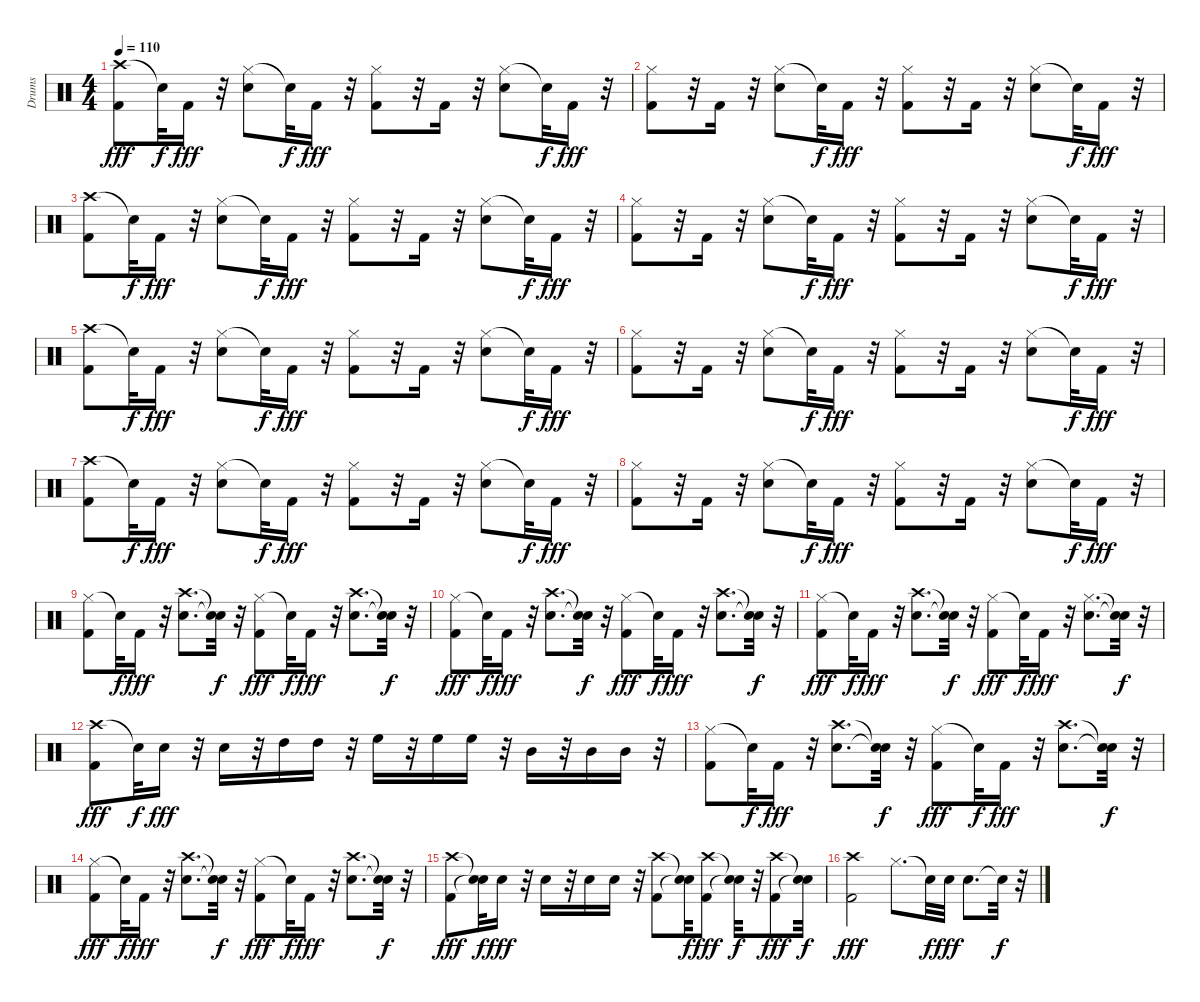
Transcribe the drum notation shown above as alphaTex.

\track ("Drums" "Drums") {instrument percussion}
\staff {score}
\articulation defaults
\ts (4 4)
\tempo 110
\clef neutral
\ks c
("Crash high (hit)" "Kick (hit) 2").8{dy fff} "Snare (hit)"{t}.32{dy f} "Kick (hit) 2".16{dy fff} r.32 ("Hi-Hat (closed)" "Snare (hit) 2").8 "Snare (hit)"{t}.32{dy f} "Kick (hit) 2".16{dy fff} r.32 ("Kick (hit) 2" "Hi-Hat (closed)").8 r.32 "Kick (hit) 2".16 r.32 ("Hi-Hat (closed)" "Snare (hit) 2").8 "Snare (hit)"{t}.32{dy f} "Kick (hit) 2".16{dy fff} r.32 |
("Kick (hit) 2" "Hi-Hat (closed)").8 r.32 "Kick (hit) 2".16 r.32 ("Hi-Hat (closed)" "Snare (hit) 2").8 "Snare (hit)"{t}.32{dy f} "Kick (hit) 2".16{dy fff} r.32 ("Kick (hit) 2" "Hi-Hat (closed)").8 r.32 "Kick (hit) 2".16 r.32 ("Hi-Hat (closed)" "Snare (hit) 2").8 "Snare (hit)"{t}.32{dy f} "Kick (hit) 2".16{dy fff} r.32 |
("Crash high (hit)" "Kick (hit) 2").8 "Snare (hit)"{t}.32{dy f} "Kick (hit) 2".16{dy fff} r.32 ("Hi-Hat (closed)" "Snare (hit) 2").8 "Snare (hit)"{t}.32{dy f} "Kick (hit) 2".16{dy fff} r.32 ("Kick (hit) 2" "Hi-Hat (closed)").8 r.32 "Kick (hit) 2".16 r.32 ("Hi-Hat (closed)" "Snare (hit) 2").8 "Snare (hit)"{t}.32{dy f} "Kick (hit) 2".16{dy fff} r.32 |
("Kick (hit) 2" "Hi-Hat (closed)").8 r.32 "Kick (hit) 2".16 r.32 ("Hi-Hat (closed)" "Snare (hit) 2").8 "Snare (hit)"{t}.32{dy f} "Kick (hit) 2".16{dy fff} r.32 ("Kick (hit) 2" "Hi-Hat (closed)").8 r.32 "Kick (hit) 2".16 r.32 ("Hi-Hat (closed)" "Snare (hit) 2").8 "Snare (hit)"{t}.32{dy f} "Kick (hit) 2".16{dy fff} r.32 |
("Crash high (hit)" "Kick (hit) 2").8 "Snare (hit)"{t}.32{dy f} "Kick (hit) 2".16{dy fff} r.32 ("Hi-Hat (closed)" "Snare (hit) 2").8 "Snare (hit)"{t}.32{dy f} "Kick (hit) 2".16{dy fff} r.32 ("Kick (hit) 2" "Hi-Hat (closed)").8 r.32 "Kick (hit) 2".16 r.32 ("Hi-Hat (closed)" "Snare (hit) 2").8 "Snare (hit)"{t}.32{dy f} "Kick (hit) 2".16{dy fff} r.32 |
("Kick (hit) 2" "Hi-Hat (closed)").8 r.32 "Kick (hit) 2".16 r.32 ("Hi-Hat (closed)" "Snare (hit) 2").8 "Snare (hit)"{t}.32{dy f} "Kick (hit) 2".16{dy fff} r.32 ("Kick (hit) 2" "Hi-Hat (closed)").8 r.32 "Kick (hit) 2".16 r.32 ("Hi-Hat (closed)" "Snare (hit) 2").8 "Snare (hit)"{t}.32{dy f} "Kick (hit) 2".16{dy fff} r.32 |
("Crash high (hit)" "Kick (hit) 2").8 "Snare (hit)"{t}.32{dy f} "Kick (hit) 2".16{dy fff} r.32 ("Hi-Hat (closed)" "Snare (hit) 2").8 "Snare (hit)"{t}.32{dy f} "Kick (hit) 2".16{dy fff} r.32 ("Kick (hit) 2" "Hi-Hat (closed)").8 r.32 "Kick (hit) 2".16 r.32 ("Hi-Hat (closed)" "Snare (hit) 2").8 "Snare (hit)"{t}.32{dy f} "Kick (hit) 2".16{dy fff} r.32 |
("Kick (hit) 2" "Hi-Hat (closed)").8 r.32 "Kick (hit) 2".16 r.32 ("Hi-Hat (closed)" "Snare (hit) 2").8 "Snare (hit)"{t}.32{dy f} "Kick (hit) 2".16{dy fff} r.32 ("Kick (hit) 2" "Hi-Hat (closed)").8 r.32 "Kick (hit) 2".16 r.32 ("Hi-Hat (closed)" "Snare (hit) 2").8 "Snare (hit)"{t}.32{dy f} "Kick (hit) 2".16{dy fff} r.32 |
("Hi-Hat (closed)" "Kick (hit) 2").8 "Snare (hit)"{t}.32{dy f} "Kick (hit) 2".16{dy fff} r.32 ("Crash high (hit)" "Snare (hit) 2").8{d} ("Snare (hit)"{t} "Snare (hit)"{t}).32{dy f} r.32 ("Hi-Hat (closed)" "Kick (hit) 2").8{dy fff} "Snare (hit)"{t}.32{dy f} "Kick (hit) 2".16{dy fff} r.32 ("Crash high (hit)" "Snare (hit) 2").8{d} ("Snare (hit)"{t} "Snare (hit)"{t}).32{dy f} r.32 |
("Hi-Hat (closed)" "Kick (hit) 2").8{dy fff} "Snare (hit)"{t}.32{dy f} "Kick (hit) 2".16{dy fff} r.32 ("Crash high (hit)" "Snare (hit) 2").8{d} ("Snare (hit)"{t} "Snare (hit)"{t}).32{dy f} r.32 ("Hi-Hat (closed)" "Kick (hit) 2").8{dy fff} "Snare (hit)"{t}.32{dy f} "Kick (hit) 2".16{dy fff} r.32 ("Crash high (hit)" "Snare (hit) 2").8{d} ("Snare (hit)"{t} "Snare (hit)"{t}).32{dy f} r.32 |
("Hi-Hat (closed)" "Kick (hit) 2").8{dy fff} "Snare (hit)"{t}.32{dy f} "Kick (hit) 2".16{dy fff} r.32 ("Crash high (hit)" "Snare (hit) 2").8{d} ("Snare (hit)"{t} "Snare (hit)"{t}).32{dy f} r.32 ("Hi-Hat (closed)" "Kick (hit) 2").8{dy fff} "Snare (hit)"{t}.32{dy f} "Kick (hit) 2".16{dy fff} r.32 ("Snare (hit) 2" "Hi-Hat (closed)").8{d} ("Snare (hit)"{t} "Snare (hit)"{t}).32{dy f} r.32 |
("Crash high (hit)" "Kick (hit) 2").8{dy fff} "Snare (hit)"{t}.32{dy f} "Snare (hit) 2".16{dy fff} r.32 "Snare (hit) 2".16 r.32 "High Tom (hit)".16 "High Tom (hit)".16 r.32 "High Floor Tom (hit)".16 r.32 "High Floor Tom (hit)".16 "High Floor Tom (hit)".16 r.32 "Mid Tom (hit)".16 r.32 "Mid Tom (hit)".16 "Mid Tom (hit)".16 r.32 |
("Hi-Hat (closed)" "Kick (hit) 2").8 "Snare (hit)"{t}.32{dy f} "Kick (hit) 2".16{dy fff} r.32 ("Crash high (hit)" "Snare (hit) 2").8{d} ("Snare (hit)"{t} "Snare (hit)"{t}).32{dy f} r.32 ("Hi-Hat (closed)" "Kick (hit) 2").8{dy fff} "Snare (hit)"{t}.32{dy f} "Kick (hit) 2".16{dy fff} r.32 ("Crash high (hit)" "Snare (hit) 2").8{d} ("Snare (hit)"{t} "Snare (hit)"{t}).32{dy f} r.32 |
("Hi-Hat (closed)" "Kick (hit) 2").8{dy fff} "Snare (hit)"{t}.32{dy f} "Kick (hit) 2".16{dy fff} r.32 ("Crash high (hit)" "Snare (hit) 2").8{d} ("Snare (hit)"{t} "Snare (hit)"{t}).32{dy f} r.32 ("Hi-Hat (closed)" "Kick (hit) 2").8{dy fff} "Snare (hit)"{t}.32{dy f} "Kick (hit) 2".16{dy fff} r.32 ("Crash high (hit)" "Snare (hit) 2").8{d} ("Snare (hit)"{t} "Snare (hit)"{t}).32{dy f} r.32 |
("Kick (hit) 2" "Crash high (hit)").8{dy fff} ("Snare (hit)"{t} "Snare (hit)"{t}).32{dy f} "Snare (hit) 2".16{dy fff} r.32 "Snare (hit) 2".16 r.32 "Snare (hit) 2".16 "Snare (hit) 2".16 r.32 ("Kick (hit) 2" "Crash high (hit)").8 ("Snare (hit)"{t} "Snare (hit)"{t}).32{dy f} ("Kick (hit) 2" "Crash high (hit)").8{dy fff} ("Snare (hit)"{t} "Snare (hit)"{t}).32{dy f} r.32 ("Kick (hit) 2" "Crash high (hit)").8{dy fff} ("Snare (hit)"{t} "Snare (hit)"{t}).32{dy f} |
("Crash high (hit)" "Kick (hit) 2").2{dy fff} "Hi-Hat (closed)".8{d} "Snare (hit)"{t}.32{dy f} "Snare (hit) 2".32{dy fff} "Snare (hit) 2".8{d} "Snare (hit)"{t}.32{dy f} r.32
